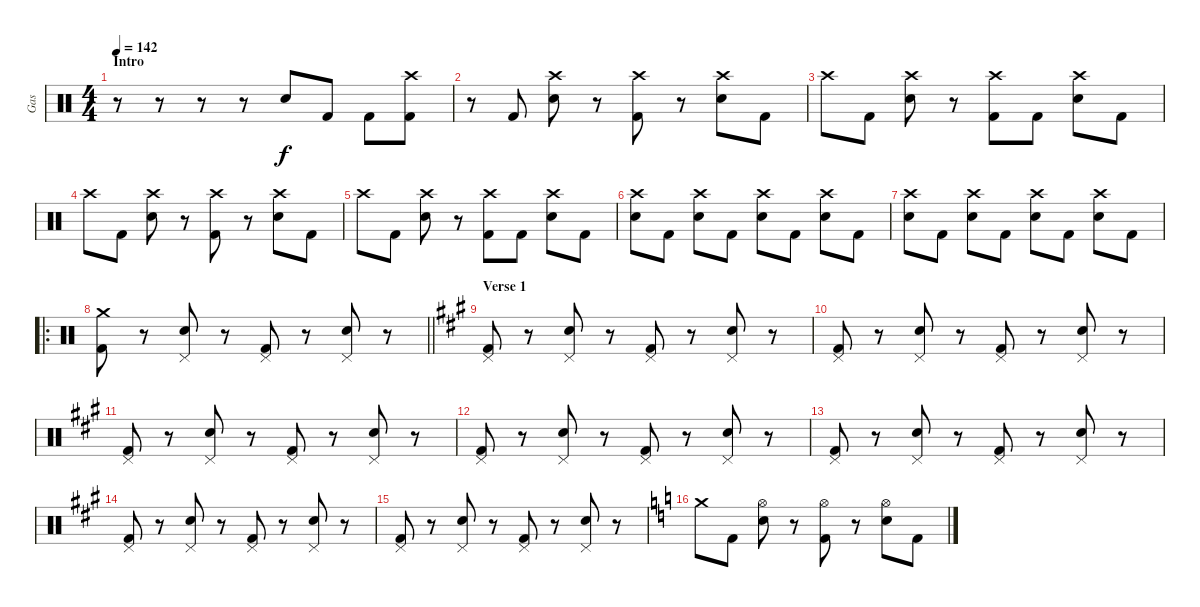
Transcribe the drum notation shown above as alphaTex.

\track ("Gas" "Gas") {instrument percussion}
\staff {score}
\articulation defaults
\ts (4 4)
\section ("" "Intro")
\tempo 142
\clef neutral
\ks c
r.8{dy f} r.8 r.8 r.8 "Electric Snare (hit)".8 "Kick (hit) 2".8 "Kick (hit) 2".8 ("Crash high (hit)" "Kick (hit) 2").8 |
r.8 "Kick (hit) 2".8 ("Crash high (hit)" "Electric Snare (hit)").8 r.8 ("Crash high (hit)" "Kick (hit) 2").8 r.8 ("Crash high (hit)" "Electric Snare (hit)").8 "Kick (hit) 2".8 |
"Crash high (hit)".8 "Kick (hit) 2".8 ("Crash high (hit)" "Electric Snare (hit)").8 r.8 ("Crash high (hit)" "Kick (hit) 2").8 "Kick (hit) 2".8 ("Crash high (hit)" "Electric Snare (hit)").8 "Kick (hit) 2".8 |
"Crash high (hit)".8 "Kick (hit) 2".8 ("Crash high (hit)" "Electric Snare (hit)").8 r.8 ("Crash high (hit)" "Kick (hit) 2").8 r.8 ("Crash high (hit)" "Electric Snare (hit)").8 "Kick (hit) 2".8 |
"Crash high (hit)".8 "Kick (hit) 2".8 ("Crash high (hit)" "Electric Snare (hit)").8 r.8 ("Crash high (hit)" "Kick (hit) 2").8 "Kick (hit) 2".8 ("Crash high (hit)" "Electric Snare (hit)").8 "Kick (hit) 2".8 |
("Crash high (hit)" "Electric Snare (hit)").8 "Kick (hit) 2".8 ("Crash high (hit)" "Electric Snare (hit)").8 "Kick (hit) 2".8 ("Crash high (hit)" "Electric Snare (hit)").8 "Kick (hit) 2".8 ("Crash high (hit)" "Electric Snare (hit)").8 "Kick (hit) 2".8 |
("Crash high (hit)" "Electric Snare (hit)").8 "Kick (hit) 2".8 ("Crash high (hit)" "Electric Snare (hit)").8 "Kick (hit) 2".8 ("Crash high (hit)" "Electric Snare (hit)").8 "Kick (hit) 2".8 ("Crash high (hit)" "Electric Snare (hit)").8 "Kick (hit) 2".8 |
\ro
\barLineRight lightlight
("Crash medium (hit)" "Kick (hit) 2").8 r.8 ("Pedal Hi-Hat (hit)" "Electric Snare (hit)").8 r.8 ("Pedal Hi-Hat (hit)" "Kick (hit) 2").8 r.8 ("Pedal Hi-Hat (hit)" "Electric Snare (hit)").8 r.8 |
\section ("" "Verse 1")
\ks a
("Pedal Hi-Hat (hit)" "Kick (hit) 2").8 r.8 ("Pedal Hi-Hat (hit)" "Electric Snare (hit)").8 r.8 ("Pedal Hi-Hat (hit)" "Kick (hit) 2").8 r.8 ("Pedal Hi-Hat (hit)" "Electric Snare (hit)").8 r.8 |
("Pedal Hi-Hat (hit)" "Kick (hit) 2").8 r.8 ("Pedal Hi-Hat (hit)" "Electric Snare (hit)").8 r.8 ("Pedal Hi-Hat (hit)" "Kick (hit) 2").8 r.8 ("Pedal Hi-Hat (hit)" "Electric Snare (hit)").8 r.8 |
("Pedal Hi-Hat (hit)" "Kick (hit) 2").8 r.8 ("Pedal Hi-Hat (hit)" "Electric Snare (hit)").8 r.8 ("Pedal Hi-Hat (hit)" "Kick (hit) 2").8 r.8 ("Pedal Hi-Hat (hit)" "Electric Snare (hit)").8 r.8 |
("Pedal Hi-Hat (hit)" "Kick (hit) 2").8 r.8 ("Pedal Hi-Hat (hit)" "Electric Snare (hit)").8 r.8 ("Pedal Hi-Hat (hit)" "Kick (hit) 2").8 r.8 ("Pedal Hi-Hat (hit)" "Electric Snare (hit)").8 r.8 |
("Pedal Hi-Hat (hit)" "Kick (hit) 2").8 r.8 ("Pedal Hi-Hat (hit)" "Electric Snare (hit)").8 r.8 ("Pedal Hi-Hat (hit)" "Kick (hit) 2").8 r.8 ("Pedal Hi-Hat (hit)" "Electric Snare (hit)").8 r.8 |
("Pedal Hi-Hat (hit)" "Kick (hit) 2").8 r.8 ("Pedal Hi-Hat (hit)" "Electric Snare (hit)").8 r.8 ("Pedal Hi-Hat (hit)" "Kick (hit) 2").8 r.8 ("Pedal Hi-Hat (hit)" "Electric Snare (hit)").8 r.8 |
("Pedal Hi-Hat (hit)" "Kick (hit) 2").8 r.8 ("Pedal Hi-Hat (hit)" "Electric Snare (hit)").8 r.8 ("Pedal Hi-Hat (hit)" "Kick (hit) 2").8 r.8 ("Pedal Hi-Hat (hit)" "Electric Snare (hit)").8 r.8 |
\ks c "Crash medium (hit)".8 "Kick (hit) 2".8
("Hi-Hat (open)" "Electric Snare (hit)").8 r.8 ("Hi-Hat (open)" "Kick (hit) 2").8 r.8 ("Hi-Hat (open)" "Electric Snare (hit)").8 "Kick (hit) 2".8
